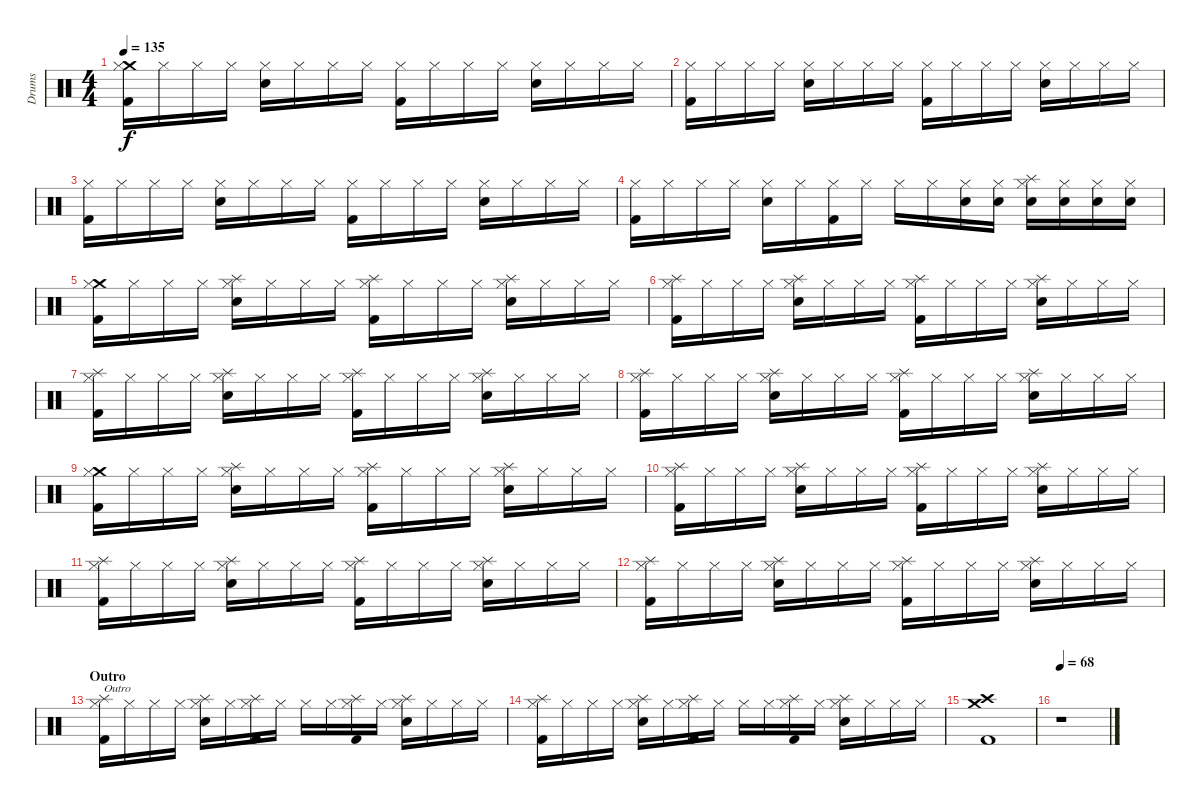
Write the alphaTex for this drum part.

\track ("Drums" "Drums") {instrument percussion}
\staff {score}
\articulation defaults
\ts (4 4)
\tempo 135
\clef neutral
\ks c
("Crash medium (hit)" "Hi-Hat (closed)" "Kick (hit) 2").16{dy f} "Hi-Hat (closed)".16 "Hi-Hat (closed)".16 "Hi-Hat (closed)".16 ("Hi-Hat (closed)" "Snare (hit) 2").16 "Hi-Hat (closed)".16 "Hi-Hat (closed)".16 "Hi-Hat (closed)".16 ("Hi-Hat (closed)" "Kick (hit) 2").16 "Hi-Hat (closed)".16 "Hi-Hat (closed)".16 "Hi-Hat (closed)".16 ("Hi-Hat (closed)" "Snare (hit) 2").16 "Hi-Hat (closed)".16 "Hi-Hat (closed)".16 "Hi-Hat (closed)".16 |
("Hi-Hat (closed)" "Kick (hit) 2").16 "Hi-Hat (closed)".16 "Hi-Hat (closed)".16 "Hi-Hat (closed)".16 ("Hi-Hat (closed)" "Snare (hit) 2").16 "Hi-Hat (closed)".16 "Hi-Hat (closed)".16 "Hi-Hat (closed)".16 ("Hi-Hat (closed)" "Kick (hit) 2").16 "Hi-Hat (closed)".16 "Hi-Hat (closed)".16 "Hi-Hat (closed)".16 ("Hi-Hat (closed)" "Snare (hit) 2").16 "Hi-Hat (closed)".16 "Hi-Hat (closed)".16 "Hi-Hat (closed)".16 |
("Hi-Hat (closed)" "Kick (hit) 2").16 "Hi-Hat (closed)".16 "Hi-Hat (closed)".16 "Hi-Hat (closed)".16 ("Hi-Hat (closed)" "Snare (hit) 2").16 "Hi-Hat (closed)".16 "Hi-Hat (closed)".16 "Hi-Hat (closed)".16 ("Hi-Hat (closed)" "Kick (hit) 2").16 "Hi-Hat (closed)".16 "Hi-Hat (closed)".16 "Hi-Hat (closed)".16 ("Hi-Hat (closed)" "Snare (hit) 2").16 "Hi-Hat (closed)".16 "Hi-Hat (closed)".16 "Hi-Hat (closed)".16 |
("Hi-Hat (closed)" "Kick (hit) 2").16 "Hi-Hat (closed)".16 "Hi-Hat (closed)".16 "Hi-Hat (closed)".16 ("Hi-Hat (closed)" "Snare (hit) 2").16 "Hi-Hat (closed)".16 ("Hi-Hat (closed)" "Kick (hit) 2").16 "Hi-Hat (closed)".16 "Hi-Hat (closed)".16 "Hi-Hat (closed)".16 ("Hi-Hat (closed)" "Snare (hit) 2").16 ("Hi-Hat (closed)" "Snare (hit) 2").16 ("Splash (hit)" "Hi-Hat (closed)" "Snare (hit) 2").16 ("Hi-Hat (closed)" "Snare (hit) 2").16 ("Hi-Hat (closed)" "Snare (hit) 2").16 ("Hi-Hat (closed)" "Snare (hit) 2").16 |
("Crash medium (hit)" "Hi-Hat (closed)" "Kick (hit) 2").16 "Hi-Hat (closed)".16 "Hi-Hat (closed)".16 "Hi-Hat (closed)".16 ("Splash (hit)" "Hi-Hat (closed)" "Snare (hit) 2").16 "Hi-Hat (closed)".16 "Hi-Hat (closed)".16 "Hi-Hat (closed)".16 ("Splash (hit)" "Hi-Hat (closed)" "Kick (hit) 2").16 "Hi-Hat (closed)".16 "Hi-Hat (closed)".16 "Hi-Hat (closed)".16 ("Splash (hit)" "Hi-Hat (closed)" "Snare (hit) 2").16 "Hi-Hat (closed)".16 "Hi-Hat (closed)".16 "Hi-Hat (closed)".16 |
("Splash (hit)" "Hi-Hat (closed)" "Kick (hit) 2").16 "Hi-Hat (closed)".16 "Hi-Hat (closed)".16 "Hi-Hat (closed)".16 ("Splash (hit)" "Hi-Hat (closed)" "Snare (hit) 2").16 "Hi-Hat (closed)".16 "Hi-Hat (closed)".16 "Hi-Hat (closed)".16 ("Splash (hit)" "Hi-Hat (closed)" "Kick (hit) 2").16 "Hi-Hat (closed)".16 "Hi-Hat (closed)".16 "Hi-Hat (closed)".16 ("Splash (hit)" "Hi-Hat (closed)" "Snare (hit) 2").16 "Hi-Hat (closed)".16 "Hi-Hat (closed)".16 "Hi-Hat (closed)".16 |
("Splash (hit)" "Hi-Hat (closed)" "Kick (hit) 2").16 "Hi-Hat (closed)".16 "Hi-Hat (closed)".16 "Hi-Hat (closed)".16 ("Splash (hit)" "Hi-Hat (closed)" "Snare (hit) 2").16 "Hi-Hat (closed)".16 "Hi-Hat (closed)".16 "Hi-Hat (closed)".16 ("Splash (hit)" "Hi-Hat (closed)" "Kick (hit) 2").16 "Hi-Hat (closed)".16 "Hi-Hat (closed)".16 "Hi-Hat (closed)".16 ("Splash (hit)" "Hi-Hat (closed)" "Snare (hit) 2").16 "Hi-Hat (closed)".16 "Hi-Hat (closed)".16 "Hi-Hat (closed)".16 |
("Splash (hit)" "Hi-Hat (closed)" "Kick (hit) 2").16 "Hi-Hat (closed)".16 "Hi-Hat (closed)".16 "Hi-Hat (closed)".16 ("Splash (hit)" "Hi-Hat (closed)" "Snare (hit) 2").16 "Hi-Hat (closed)".16 "Hi-Hat (closed)".16 "Hi-Hat (closed)".16 ("Splash (hit)" "Hi-Hat (closed)" "Kick (hit) 2").16 "Hi-Hat (closed)".16 "Hi-Hat (closed)".16 "Hi-Hat (closed)".16 ("Splash (hit)" "Hi-Hat (closed)" "Snare (hit) 2").16 "Hi-Hat (closed)".16 "Hi-Hat (closed)".16 "Hi-Hat (closed)".16 |
("Crash medium (hit)" "Hi-Hat (closed)" "Kick (hit) 2").16 "Hi-Hat (closed)".16 "Hi-Hat (closed)".16 "Hi-Hat (closed)".16 ("Splash (hit)" "Hi-Hat (closed)" "Snare (hit) 2").16 "Hi-Hat (closed)".16 "Hi-Hat (closed)".16 "Hi-Hat (closed)".16 ("Splash (hit)" "Hi-Hat (closed)" "Kick (hit) 2").16 "Hi-Hat (closed)".16 "Hi-Hat (closed)".16 "Hi-Hat (closed)".16 ("Splash (hit)" "Hi-Hat (closed)" "Snare (hit) 2").16 "Hi-Hat (closed)".16 "Hi-Hat (closed)".16 "Hi-Hat (closed)".16 |
("Splash (hit)" "Hi-Hat (closed)" "Kick (hit) 2").16 "Hi-Hat (closed)".16 "Hi-Hat (closed)".16 "Hi-Hat (closed)".16 ("Splash (hit)" "Hi-Hat (closed)" "Snare (hit) 2").16 "Hi-Hat (closed)".16 "Hi-Hat (closed)".16 "Hi-Hat (closed)".16 ("Splash (hit)" "Hi-Hat (closed)" "Kick (hit) 2").16 "Hi-Hat (closed)".16 "Hi-Hat (closed)".16 "Hi-Hat (closed)".16 ("Splash (hit)" "Hi-Hat (closed)" "Snare (hit) 2").16 "Hi-Hat (closed)".16 "Hi-Hat (closed)".16 "Hi-Hat (closed)".16 |
("Splash (hit)" "Hi-Hat (closed)" "Kick (hit) 2").16 "Hi-Hat (closed)".16 "Hi-Hat (closed)".16 "Hi-Hat (closed)".16 ("Splash (hit)" "Hi-Hat (closed)" "Snare (hit) 2").16 "Hi-Hat (closed)".16 "Hi-Hat (closed)".16 "Hi-Hat (closed)".16 ("Splash (hit)" "Hi-Hat (closed)" "Kick (hit) 2").16 "Hi-Hat (closed)".16 "Hi-Hat (closed)".16 "Hi-Hat (closed)".16 ("Splash (hit)" "Hi-Hat (closed)" "Snare (hit) 2").16 "Hi-Hat (closed)".16 "Hi-Hat (closed)".16 "Hi-Hat (closed)".16 |
("Splash (hit)" "Hi-Hat (closed)" "Kick (hit) 2").16 "Hi-Hat (closed)".16 "Hi-Hat (closed)".16 "Hi-Hat (closed)".16 ("Splash (hit)" "Hi-Hat (closed)" "Snare (hit) 2").16 "Hi-Hat (closed)".16 "Hi-Hat (closed)".16 "Hi-Hat (closed)".16 ("Splash (hit)" "Hi-Hat (closed)" "Kick (hit) 2").16 "Hi-Hat (closed)".16 "Hi-Hat (closed)".16 "Hi-Hat (closed)".16 ("Splash (hit)" "Hi-Hat (closed)" "Snare (hit) 2").16 "Hi-Hat (closed)".16 "Hi-Hat (closed)".16 "Hi-Hat (closed)".16 |
\section ("" "Outro")
("Splash (hit)" "Hi-Hat (closed)" "Kick (hit) 2").16{txt "Outro"} "Hi-Hat (closed)".16 "Hi-Hat (closed)".16 "Hi-Hat (closed)".16 ("Splash (hit)" "Hi-Hat (closed)" "Snare (hit) 2").16 "Hi-Hat (closed)".16 ("Splash (hit)" "Hi-Hat (closed)" "Kick (hit) 2").16 "Hi-Hat (closed)".16 "Hi-Hat (closed)".16 "Hi-Hat (closed)".16 ("Splash (hit)" "Hi-Hat (closed)" "Kick (hit) 2").16 "Hi-Hat (closed)".16 ("Splash (hit)" "Hi-Hat (closed)" "Snare (hit) 2").16 "Hi-Hat (closed)".16 "Hi-Hat (closed)".16 "Hi-Hat (closed)".16 |
("Splash (hit)" "Hi-Hat (closed)" "Kick (hit) 2").16 "Hi-Hat (closed)".16 "Hi-Hat (closed)".16 "Hi-Hat (closed)".16 ("Splash (hit)" "Hi-Hat (closed)" "Snare (hit) 2").16 "Hi-Hat (closed)".16 ("Splash (hit)" "Hi-Hat (closed)" "Kick (hit) 2").16 "Hi-Hat (closed)".16 "Hi-Hat (closed)".16 "Hi-Hat (closed)".16 ("Splash (hit)" "Hi-Hat (closed)" "Kick (hit) 2").16 "Hi-Hat (closed)".16 ("Splash (hit)" "Hi-Hat (closed)" "Snare (hit) 2").16 "Hi-Hat (closed)".16 "Hi-Hat (closed)".16 "Hi-Hat (closed)".16 |
("Crash medium (hit)" "Crash high (hit)" "Kick (hit) 2").1 |
\tempo 68
r.1
